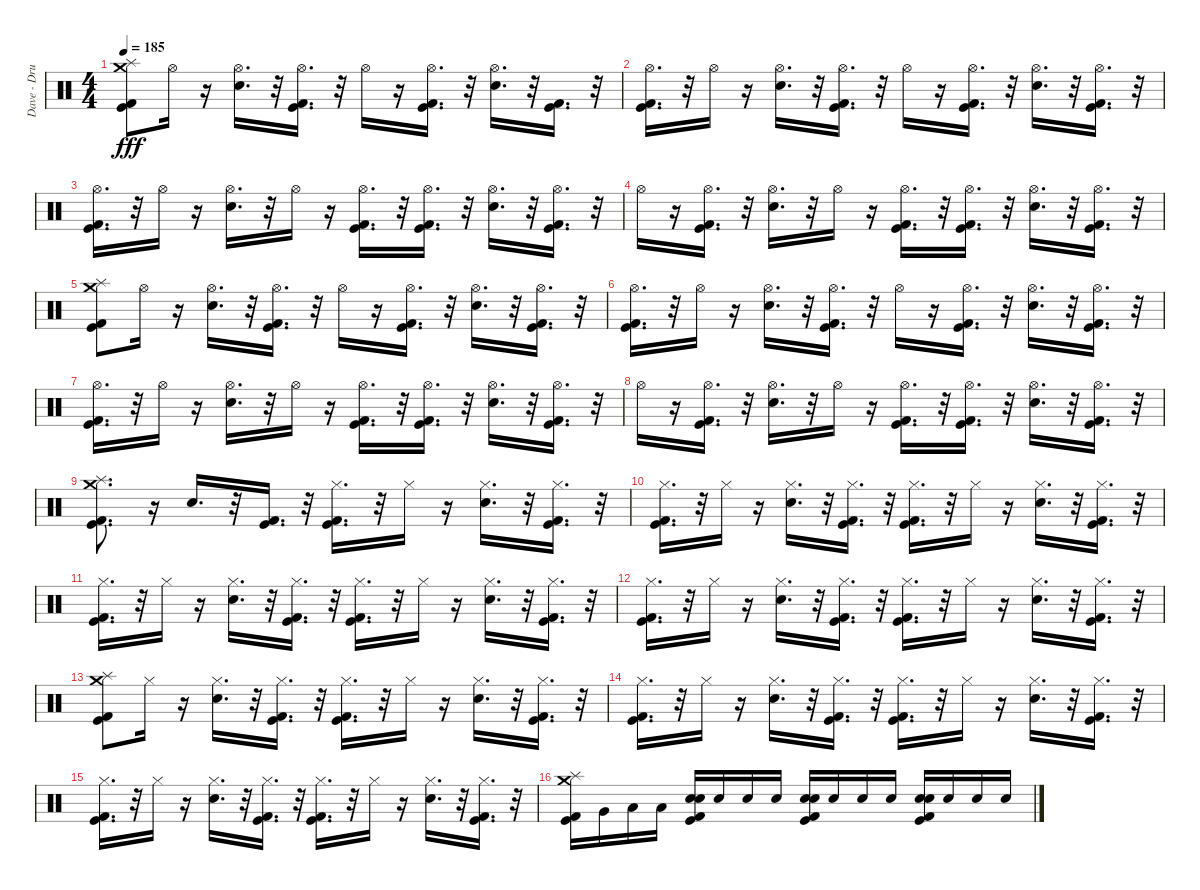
\track ("Dave - Drums" "Dave - Dru") {instrument percussion}
\staff {score}
\articulation defaults
\ts (4 4)
\tempo 185
\clef neutral
\ks c
("Kick (hit)" "Kick (hit) 2" "Splash (hit)" "Crash medium (hit)").8{dy fff} "Hi-Hat (open)".16 r.16 ("Electric Snare (hit)" "Hi-Hat (open)").16{d} r.32 ("Kick (hit)" "Kick (hit) 2" "Hi-Hat (open)").16{d} r.32 "Hi-Hat (open)".16 r.16 ("Kick (hit)" "Kick (hit) 2" "Hi-Hat (open)").16{d} r.32 ("Electric Snare (hit)" "Hi-Hat (open)").16{d} r.32 ("Kick (hit)" "Kick (hit) 2").16{d} r.32 |
("Kick (hit)" "Kick (hit) 2" "Hi-Hat (open)").16{d} r.32 "Hi-Hat (open)".16 r.16 ("Electric Snare (hit)" "Hi-Hat (open)").16{d} r.32 ("Kick (hit)" "Kick (hit) 2" "Hi-Hat (open)").16{d} r.32 "Hi-Hat (open)".16 r.16 ("Kick (hit)" "Kick (hit) 2" "Hi-Hat (open)").16{d} r.32 ("Electric Snare (hit)" "Hi-Hat (open)").16{d} r.32 ("Kick (hit)" "Kick (hit) 2" "Hi-Hat (open)").16{d} r.32 |
("Kick (hit)" "Kick (hit) 2" "Hi-Hat (open)").16{d} r.32 "Hi-Hat (open)".16 r.16 ("Electric Snare (hit)" "Hi-Hat (open)").16{d} r.32 "Hi-Hat (open)".16 r.16 ("Kick (hit)" "Kick (hit) 2" "Hi-Hat (open)").16{d} r.32 ("Kick (hit)" "Kick (hit) 2" "Hi-Hat (open)").16{d} r.32 ("Electric Snare (hit)" "Hi-Hat (open)").16{d} r.32 ("Kick (hit)" "Kick (hit) 2" "Hi-Hat (open)").16{d} r.32 |
"Hi-Hat (open)".16 r.16 ("Kick (hit)" "Kick (hit) 2" "Hi-Hat (open)").16{d} r.32 ("Electric Snare (hit)" "Hi-Hat (open)").16{d} r.32 "Hi-Hat (open)".16 r.16 ("Kick (hit)" "Kick (hit) 2" "Hi-Hat (open)").16{d} r.32 ("Kick (hit)" "Kick (hit) 2" "Hi-Hat (open)").16{d} r.32 ("Electric Snare (hit)" "Hi-Hat (open)").16{d} r.32 ("Kick (hit)" "Kick (hit) 2" "Hi-Hat (open)").16{d} r.32 |
("Kick (hit)" "Kick (hit) 2" "Splash (hit)" "Crash medium (hit)").8 "Hi-Hat (open)".16 r.16 ("Electric Snare (hit)" "Hi-Hat (open)").16{d} r.32 ("Kick (hit)" "Kick (hit) 2" "Hi-Hat (open)").16{d} r.32 "Hi-Hat (open)".16 r.16 ("Kick (hit)" "Kick (hit) 2" "Hi-Hat (open)").16{d} r.32 ("Electric Snare (hit)" "Hi-Hat (open)").16{d} r.32 ("Kick (hit)" "Kick (hit) 2" "Hi-Hat (open)").16{d} r.32 |
("Kick (hit)" "Kick (hit) 2" "Hi-Hat (open)").16{d} r.32 "Hi-Hat (open)".16 r.16 ("Electric Snare (hit)" "Hi-Hat (open)").16{d} r.32 ("Kick (hit)" "Kick (hit) 2" "Hi-Hat (open)").16{d} r.32 "Hi-Hat (open)".16 r.16 ("Kick (hit)" "Kick (hit) 2" "Hi-Hat (open)").16{d} r.32 ("Electric Snare (hit)" "Hi-Hat (open)").16{d} r.32 ("Kick (hit)" "Kick (hit) 2" "Hi-Hat (open)").16{d} r.32 |
("Kick (hit)" "Kick (hit) 2" "Hi-Hat (open)").16{d} r.32 "Hi-Hat (open)".16 r.16 ("Electric Snare (hit)" "Hi-Hat (open)").16{d} r.32 "Hi-Hat (open)".16 r.16 ("Kick (hit)" "Kick (hit) 2" "Hi-Hat (open)").16{d} r.32 ("Kick (hit)" "Kick (hit) 2" "Hi-Hat (open)").16{d} r.32 ("Electric Snare (hit)" "Hi-Hat (open)").16{d} r.32 ("Kick (hit)" "Kick (hit) 2" "Hi-Hat (open)").16{d} r.32 |
"Hi-Hat (open)".16 r.16 ("Kick (hit)" "Kick (hit) 2" "Hi-Hat (open)").16{d} r.32 ("Electric Snare (hit)" "Hi-Hat (open)").16{d} r.32 "Hi-Hat (open)".16 r.16 ("Kick (hit)" "Kick (hit) 2" "Hi-Hat (open)").16{d} r.32 ("Kick (hit)" "Kick (hit) 2" "Hi-Hat (open)").16{d} r.32 ("Electric Snare (hit)" "Hi-Hat (open)").16{d} r.32 ("Kick (hit)" "Kick (hit) 2" "Hi-Hat (open)").16{d} r.32 |
("Kick (hit)" "Kick (hit) 2" "Splash (hit)" "Crash medium (hit)").8{d} r.16 "Electric Snare (hit)".16{d} r.32 ("Kick (hit)" "Kick (hit) 2").16{d} r.32 ("Kick (hit)" "Kick (hit) 2" "Hi-Hat (closed)").16{d} r.32 "Hi-Hat (closed)".16 r.16 ("Hi-Hat (closed)" "Electric Snare (hit)").16{d} r.32 ("Hi-Hat (closed)" "Kick (hit)" "Kick (hit) 2").16{d} r.32 |
("Kick (hit)" "Kick (hit) 2" "Hi-Hat (closed)").16{d} r.32 "Hi-Hat (closed)".16 r.16 ("Hi-Hat (closed)" "Electric Snare (hit)").16{d} r.32 ("Hi-Hat (closed)" "Kick (hit)" "Kick (hit) 2").16{d} r.32 ("Kick (hit)" "Kick (hit) 2" "Hi-Hat (closed)").16{d} r.32 "Hi-Hat (closed)".16 r.16 ("Hi-Hat (closed)" "Electric Snare (hit)").16{d} r.32 ("Hi-Hat (closed)" "Kick (hit)" "Kick (hit) 2").16{d} r.32 |
("Kick (hit)" "Kick (hit) 2" "Hi-Hat (closed)").16{d} r.32 "Hi-Hat (closed)".16 r.16 ("Hi-Hat (closed)" "Electric Snare (hit)").16{d} r.32 ("Hi-Hat (closed)" "Kick (hit)" "Kick (hit) 2").16{d} r.32 ("Kick (hit)" "Kick (hit) 2" "Hi-Hat (closed)").16{d} r.32 "Hi-Hat (closed)".16 r.16 ("Hi-Hat (closed)" "Electric Snare (hit)").16{d} r.32 ("Hi-Hat (closed)" "Kick (hit)" "Kick (hit) 2").16{d} r.32 |
("Kick (hit)" "Kick (hit) 2" "Hi-Hat (closed)").16{d} r.32 "Hi-Hat (closed)".16 r.16 ("Hi-Hat (closed)" "Electric Snare (hit)").16{d} r.32 ("Hi-Hat (closed)" "Kick (hit)" "Kick (hit) 2").16{d} r.32 ("Kick (hit)" "Kick (hit) 2" "Hi-Hat (closed)").16{d} r.32 "Hi-Hat (closed)".16 r.16 ("Hi-Hat (closed)" "Electric Snare (hit)").16{d} r.32 ("Hi-Hat (closed)" "Kick (hit)" "Kick (hit) 2").16{d} r.32 |
("Kick (hit)" "Kick (hit) 2" "Splash (hit)" "Crash medium (hit)").8 "Hi-Hat (closed)".16 r.16 ("Hi-Hat (closed)" "Electric Snare (hit)").16{d} r.32 ("Hi-Hat (closed)" "Kick (hit)" "Kick (hit) 2").16{d} r.32 ("Kick (hit)" "Kick (hit) 2" "Hi-Hat (closed)").16{d} r.32 "Hi-Hat (closed)".16 r.16 ("Hi-Hat (closed)" "Electric Snare (hit)").16{d} r.32 ("Hi-Hat (closed)" "Kick (hit)" "Kick (hit) 2").16{d} r.32 |
("Kick (hit)" "Kick (hit) 2" "Hi-Hat (closed)").16{d} r.32 "Hi-Hat (closed)".16 r.16 ("Hi-Hat (closed)" "Electric Snare (hit)").16{d} r.32 ("Hi-Hat (closed)" "Kick (hit)" "Kick (hit) 2").16{d} r.32 ("Kick (hit)" "Kick (hit) 2" "Hi-Hat (closed)").16{d} r.32 "Hi-Hat (closed)".16 r.16 ("Hi-Hat (closed)" "Electric Snare (hit)").16{d} r.32 ("Hi-Hat (closed)" "Kick (hit)" "Kick (hit) 2").16{d} r.32 |
("Kick (hit)" "Kick (hit) 2" "Hi-Hat (closed)").16{d} r.32 "Hi-Hat (closed)".16 r.16 ("Hi-Hat (closed)" "Electric Snare (hit)").16{d} r.32 ("Hi-Hat (closed)" "Kick (hit)" "Kick (hit) 2").16{d} r.32 ("Kick (hit)" "Kick (hit) 2" "Hi-Hat (closed)").16{d} r.32 "Hi-Hat (closed)".16 r.16 ("Hi-Hat (closed)" "Electric Snare (hit)").16{d} r.32 ("Hi-Hat (closed)" "Kick (hit)" "Kick (hit) 2").16{d} r.32 |
("Splash (hit)" "Crash medium (hit)" "Kick (hit) 2" "Kick (hit)").16 "Very Low Tom (hit)".16 "Low Floor Tom (hit)".16 "Low Floor Tom (hit)".16 ("Kick (hit)" "Kick (hit) 2" "Electric Snare (hit)" "Snare (hit) 2").16 "Electric Snare (hit)".16 "Electric Snare (hit)".16 "Electric Snare (hit)".16 ("Kick (hit)" "Kick (hit) 2" "Electric Snare (hit)" "Snare (hit) 2").16 "Electric Snare (hit)".16 "Electric Snare (hit)".16 "Electric Snare (hit)".16 ("Kick (hit)" "Kick (hit) 2" "Electric Snare (hit)" "Snare (hit) 2").16 "Electric Snare (hit)".16 "Electric Snare (hit)".16 "Electric Snare (hit)".16
